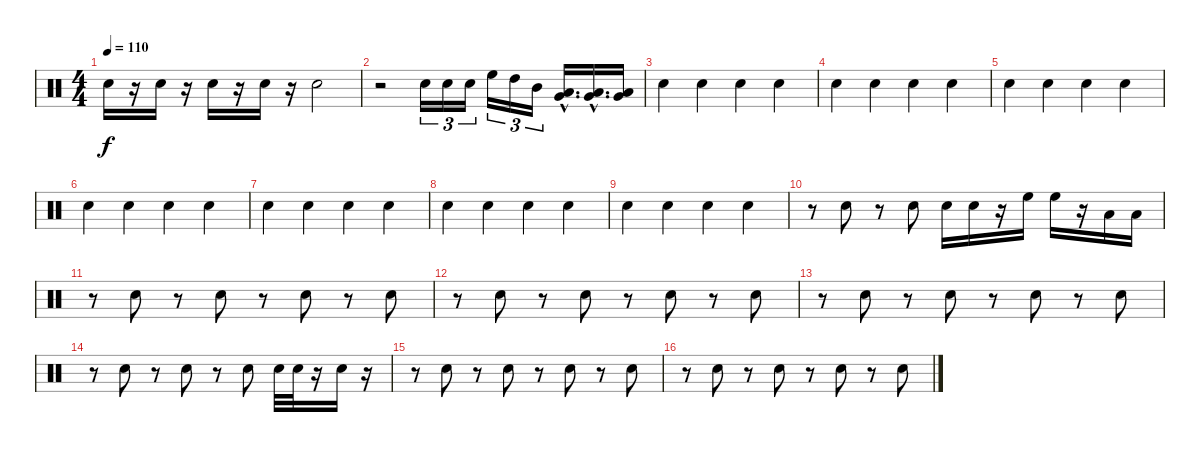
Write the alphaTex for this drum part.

\track "" {instrument percussion}
\staff {score}
\articulation defaults
\ts (4 4)
\tempo 110
\clef neutral
\ks c "Electric Snare (hit)".16{dy f}
r.16 "Electric Snare (hit)".16 r.16 "Electric Snare (hit)".16 r.16 "Electric Snare (hit)".16 r.16 "Electric Snare (hit)".2 |
r.2 "Electric Snare (hit)".16{tu (3 2)} "Electric Snare (hit)".16{tu (3 2)} "Electric Snare (hit)".16{tu (3 2)} "High Floor Tom (hit)".16{tu (3 2)} "High Tom (hit)".16{tu (3 2)} "Mid Tom (hit)".16{tu (3 2)} ("Very Low Tom (hit)"{hac} "Low Tom (hit)"{hac}).16{d} ("Very Low Tom (hit)"{hac} "Low Tom (hit)"{hac}).16{d} ("Very Low Tom (hit)" "Low Tom (hit)").16 |
"Electric Snare (hit)".4 "Electric Snare (hit)".4 "Electric Snare (hit)".4 "Electric Snare (hit)".4 |
"Electric Snare (hit)".4 "Electric Snare (hit)".4 "Electric Snare (hit)".4 "Electric Snare (hit)".4 |
"Electric Snare (hit)".4 "Electric Snare (hit)".4 "Electric Snare (hit)".4 "Electric Snare (hit)".4 |
"Electric Snare (hit)".4 "Electric Snare (hit)".4 "Electric Snare (hit)".4 "Electric Snare (hit)".4 |
"Electric Snare (hit)".4 "Electric Snare (hit)".4 "Electric Snare (hit)".4 "Electric Snare (hit)".4 |
"Electric Snare (hit)".4 "Electric Snare (hit)".4 "Electric Snare (hit)".4 "Electric Snare (hit)".4 |
"Electric Snare (hit)".4 "Electric Snare (hit)".4 "Electric Snare (hit)".4 "Electric Snare (hit)".4 |
r.8 "Electric Snare (hit)".8 r.8 "Electric Snare (hit)".8 "Electric Snare (hit)".16 "Electric Snare (hit)".16 r.16 "High Floor Tom (hit)".16 "High Floor Tom (hit)".16 r.16 "Low Tom (hit)".16 "Low Tom (hit)".16 |
r.8 "Electric Snare (hit)".8 r.8 "Electric Snare (hit)".8 r.8 "Electric Snare (hit)".8 r.8 "Electric Snare (hit)".8 |
r.8 "Electric Snare (hit)".8 r.8 "Electric Snare (hit)".8 r.8 "Electric Snare (hit)".8 r.8 "Electric Snare (hit)".8 |
r.8 "Electric Snare (hit)".8 r.8 "Electric Snare (hit)".8 r.8 "Electric Snare (hit)".8 r.8 "Electric Snare (hit)".8 |
r.8 "Electric Snare (hit)".8 r.8 "Electric Snare (hit)".8 r.8 "Electric Snare (hit)".8 "Electric Snare (hit)".32 "Electric Snare (hit)".32 r.16 "Electric Snare (hit)".16 r.16 |
r.8 "Electric Snare (hit)".8 r.8 "Electric Snare (hit)".8 r.8 "Electric Snare (hit)".8 r.8 "Electric Snare (hit)".8 |
r.8 "Electric Snare (hit)".8 r.8 "Electric Snare (hit)".8 r.8 "Electric Snare (hit)".8 r.8 "Electric Snare (hit)".8
